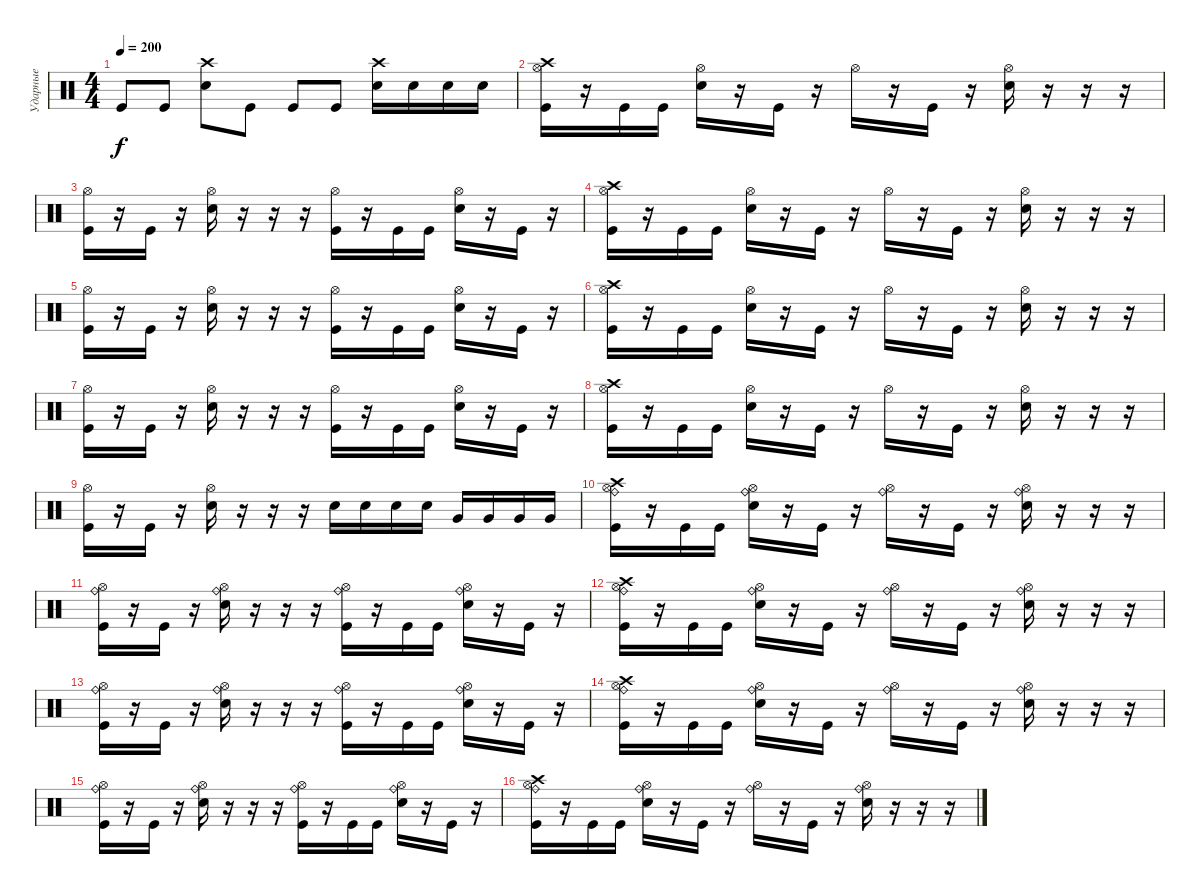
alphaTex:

\track ("Ударные" "Ударные") {instrument percussion}
\staff {score}
\articulation defaults
\ts (4 4)
\tempo 200
\clef neutral
\ks c "Kick (hit)".8{dy f} "Kick (hit)".8
("Electric Snare (hit)" "Crash high (hit)").8 "Kick (hit)".8 "Kick (hit)".8 "Kick (hit)".8 ("Electric Snare (hit)" "Crash high (hit)").16 "Electric Snare (hit)".16 "Electric Snare (hit)".16 "Electric Snare (hit)".16 |
("Hi-Hat (open)" "Crash high (hit)" "Kick (hit)").16 r.16 "Kick (hit)".16 "Kick (hit)".16 ("Hi-Hat (open)" "Electric Snare (hit)").16 r.16 "Kick (hit)".16 r.16 "Hi-Hat (open)".16 r.16 "Kick (hit)".16 r.16 ("Hi-Hat (open)" "Electric Snare (hit)").16 r.16 r.16 r.16 |
("Hi-Hat (open)" "Kick (hit)").16 r.16 "Kick (hit)".16 r.16 ("Hi-Hat (open)" "Electric Snare (hit)").16 r.16 r.16 r.16 ("Hi-Hat (open)" "Kick (hit)").16 r.16 "Kick (hit)".16 "Kick (hit)".16 ("Hi-Hat (open)" "Electric Snare (hit)").16 r.16 "Kick (hit)".16 r.16 |
("Hi-Hat (open)" "Crash high (hit)" "Kick (hit)").16 r.16 "Kick (hit)".16 "Kick (hit)".16 ("Hi-Hat (open)" "Electric Snare (hit)").16 r.16 "Kick (hit)".16 r.16 "Hi-Hat (open)".16 r.16 "Kick (hit)".16 r.16 ("Hi-Hat (open)" "Electric Snare (hit)").16 r.16 r.16 r.16 |
("Hi-Hat (open)" "Kick (hit)").16 r.16 "Kick (hit)".16 r.16 ("Hi-Hat (open)" "Electric Snare (hit)").16 r.16 r.16 r.16 ("Hi-Hat (open)" "Kick (hit)").16 r.16 "Kick (hit)".16 "Kick (hit)".16 ("Hi-Hat (open)" "Electric Snare (hit)").16 r.16 "Kick (hit)".16 r.16 |
("Hi-Hat (open)" "Crash high (hit)" "Kick (hit)").16 r.16 "Kick (hit)".16 "Kick (hit)".16 ("Hi-Hat (open)" "Electric Snare (hit)").16 r.16 "Kick (hit)".16 r.16 "Hi-Hat (open)".16 r.16 "Kick (hit)".16 r.16 ("Hi-Hat (open)" "Electric Snare (hit)").16 r.16 r.16 r.16 |
("Hi-Hat (open)" "Kick (hit)").16 r.16 "Kick (hit)".16 r.16 ("Hi-Hat (open)" "Electric Snare (hit)").16 r.16 r.16 r.16 ("Hi-Hat (open)" "Kick (hit)").16 r.16 "Kick (hit)".16 "Kick (hit)".16 ("Hi-Hat (open)" "Electric Snare (hit)").16 r.16 "Kick (hit)".16 r.16 |
("Hi-Hat (open)" "Crash high (hit)" "Kick (hit)").16 r.16 "Kick (hit)".16 "Kick (hit)".16 ("Hi-Hat (open)" "Electric Snare (hit)").16 r.16 "Kick (hit)".16 r.16 "Hi-Hat (open)".16 r.16 "Kick (hit)".16 r.16 ("Hi-Hat (open)" "Electric Snare (hit)").16 r.16 r.16 r.16 |
("Hi-Hat (open)" "Kick (hit)").16 r.16 "Kick (hit)".16 r.16 ("Hi-Hat (open)" "Electric Snare (hit)").16 r.16 r.16 r.16 "Electric Snare (hit)".16 "Electric Snare (hit)".16 "Electric Snare (hit)".16 "Electric Snare (hit)".16 "Very Low Tom (hit)".16 "Very Low Tom (hit)".16 "Very Low Tom (hit)".16 "Very Low Tom (hit)".16 |
("Hi-Hat (open)" "Ride (bell)" "Crash high (hit)" "Kick (hit)").16 r.16 "Kick (hit)".16 "Kick (hit)".16 ("Hi-Hat (open)" "Ride (bell)" "Electric Snare (hit)").16 r.16 "Kick (hit)".16 r.16 ("Hi-Hat (open)" "Ride (bell)").16 r.16 "Kick (hit)".16 r.16 ("Hi-Hat (open)" "Ride (bell)" "Electric Snare (hit)").16 r.16 r.16 r.16 |
("Hi-Hat (open)" "Ride (bell)" "Kick (hit)").16 r.16 "Kick (hit)".16 r.16 ("Hi-Hat (open)" "Ride (bell)" "Electric Snare (hit)").16 r.16 r.16 r.16 ("Hi-Hat (open)" "Ride (bell)" "Kick (hit)").16 r.16 "Kick (hit)".16 "Kick (hit)".16 ("Hi-Hat (open)" "Ride (bell)" "Electric Snare (hit)").16 r.16 "Kick (hit)".16 r.16 |
("Hi-Hat (open)" "Ride (bell)" "Crash high (hit)" "Kick (hit)").16 r.16 "Kick (hit)".16 "Kick (hit)".16 ("Hi-Hat (open)" "Ride (bell)" "Electric Snare (hit)").16 r.16 "Kick (hit)".16 r.16 ("Hi-Hat (open)" "Ride (bell)").16 r.16 "Kick (hit)".16 r.16 ("Hi-Hat (open)" "Ride (bell)" "Electric Snare (hit)").16 r.16 r.16 r.16 |
("Hi-Hat (open)" "Ride (bell)" "Kick (hit)").16 r.16 "Kick (hit)".16 r.16 ("Hi-Hat (open)" "Ride (bell)" "Electric Snare (hit)").16 r.16 r.16 r.16 ("Hi-Hat (open)" "Ride (bell)" "Kick (hit)").16 r.16 "Kick (hit)".16 "Kick (hit)".16 ("Hi-Hat (open)" "Ride (bell)" "Electric Snare (hit)").16 r.16 "Kick (hit)".16 r.16 |
("Hi-Hat (open)" "Ride (bell)" "Crash high (hit)" "Kick (hit)").16 r.16 "Kick (hit)".16 "Kick (hit)".16 ("Hi-Hat (open)" "Ride (bell)" "Electric Snare (hit)").16 r.16 "Kick (hit)".16 r.16 ("Hi-Hat (open)" "Ride (bell)").16 r.16 "Kick (hit)".16 r.16 ("Hi-Hat (open)" "Ride (bell)" "Electric Snare (hit)").16 r.16 r.16 r.16 |
("Hi-Hat (open)" "Ride (bell)" "Kick (hit)").16 r.16 "Kick (hit)".16 r.16 ("Hi-Hat (open)" "Ride (bell)" "Electric Snare (hit)").16 r.16 r.16 r.16 ("Hi-Hat (open)" "Ride (bell)" "Kick (hit)").16 r.16 "Kick (hit)".16 "Kick (hit)".16 ("Hi-Hat (open)" "Ride (bell)" "Electric Snare (hit)").16 r.16 "Kick (hit)".16 r.16 |
("Hi-Hat (open)" "Ride (bell)" "Crash high (hit)" "Kick (hit)").16 r.16 "Kick (hit)".16 "Kick (hit)".16 ("Hi-Hat (open)" "Ride (bell)" "Electric Snare (hit)").16 r.16 "Kick (hit)".16 r.16 ("Hi-Hat (open)" "Ride (bell)").16 r.16 "Kick (hit)".16 r.16 ("Hi-Hat (open)" "Ride (bell)" "Electric Snare (hit)").16 r.16 r.16 r.16
